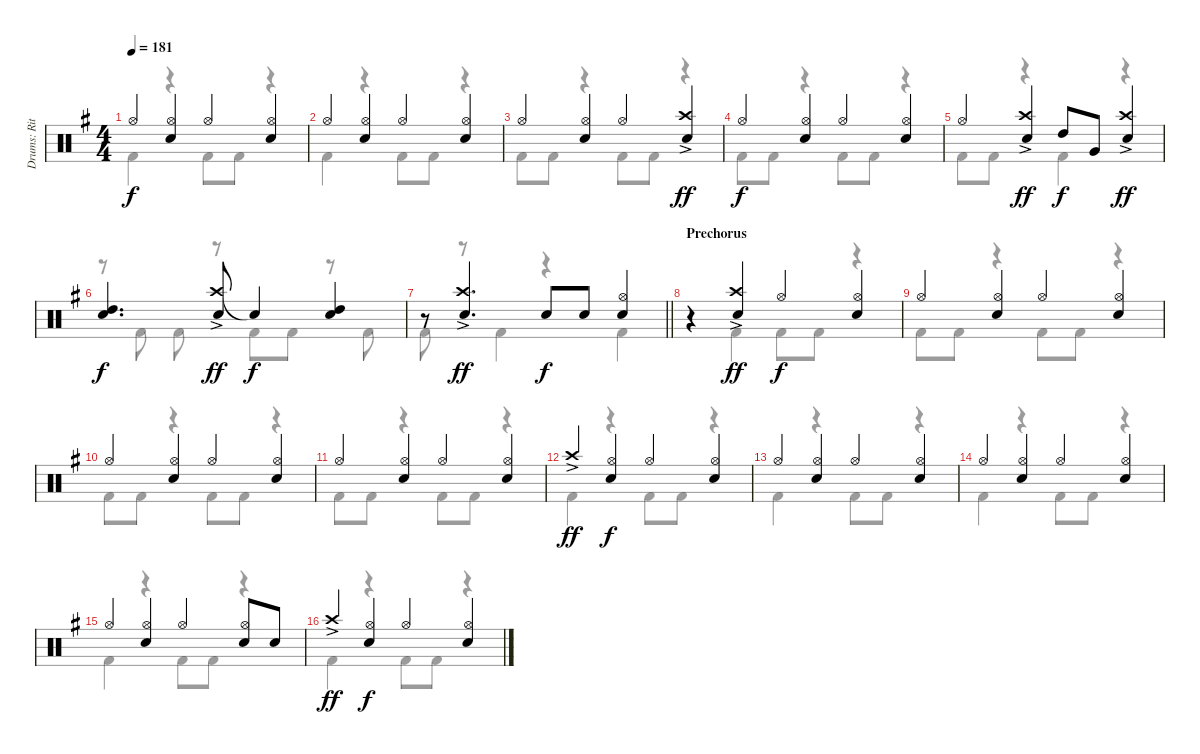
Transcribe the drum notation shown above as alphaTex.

\track ("Drums: Ritsu Tianaka" "Drums: Rit") {instrument percussion}
\staff {score}
\articulation defaults
\voice
\ts (4 4)
\tempo 181
\clef neutral
\ks g "Hi-Hat (open)".4{dy f}
("Hi-Hat (open)" "Snare (hit) 2").4 "Hi-Hat (open)".4 ("Hi-Hat (open)" "Snare (hit) 2").4 |
"Hi-Hat (open)".4 ("Hi-Hat (open)" "Snare (hit) 2").4 "Hi-Hat (open)".4 ("Hi-Hat (open)" "Snare (hit) 2").4 |
"Hi-Hat (open)".4 ("Hi-Hat (open)" "Snare (hit) 2").4 "Hi-Hat (open)".4 ("Crash high (hit)"{ac} "Snare (hit) 2").4{dy ff} |
"Hi-Hat (open)".4{dy f} ("Hi-Hat (open)" "Snare (hit) 2").4 "Hi-Hat (open)".4 ("Hi-Hat (open)" "Snare (hit) 2").4 |
"Hi-Hat (open)".4 ("Crash high (hit)"{ac} "Snare (hit) 2").4{dy ff} "High Tom (hit)".8{dy f} "Very Low Tom (hit)".8 ("Crash high (hit)"{ac} "Snare (hit) 2").4{dy ff} |
("High Tom (hit)" "Snare (hit) 2").4{d dy f} ("Crash high (hit)"{ac} "Snare (hit) 2").8{dy ff} "Snare (hit)"{t}.4{dy f} ("High Tom (hit)" "Snare (hit) 2").4 |
\barLineRight lightlight
r.8 ("Crash high (hit)"{ac} "Snare (hit) 2").4{d dy ff} "Snare (hit) 2".8{dy f} "Snare (hit) 2".8 ("Hi-Hat (open)" "Snare (hit) 2").4 |
\section ("" "Prechorus")
r.4 ("Crash high (hit)"{ac} "Snare (hit) 2").4{dy ff} "Hi-Hat (open)".4{dy f} ("Hi-Hat (open)" "Snare (hit) 2").4 |
"Hi-Hat (open)".4 ("Hi-Hat (open)" "Snare (hit) 2").4 "Hi-Hat (open)".4 ("Hi-Hat (open)" "Snare (hit) 2").4 |
"Hi-Hat (open)".4 ("Hi-Hat (open)" "Snare (hit) 2").4 "Hi-Hat (open)".4 ("Hi-Hat (open)" "Snare (hit) 2").4 |
"Hi-Hat (open)".4 ("Hi-Hat (open)" "Snare (hit) 2").4 "Hi-Hat (open)".4 ("Hi-Hat (open)" "Snare (hit) 2").4 |
"Crash high (hit)"{ac}.4{dy ff} ("Hi-Hat (open)" "Snare (hit) 2").4{dy f} "Hi-Hat (open)".4 ("Hi-Hat (open)" "Snare (hit) 2").4 |
"Hi-Hat (open)".4 ("Hi-Hat (open)" "Snare (hit) 2").4 "Hi-Hat (open)".4 ("Hi-Hat (open)" "Snare (hit) 2").4 |
"Hi-Hat (open)".4 ("Hi-Hat (open)" "Snare (hit) 2").4 "Hi-Hat (open)".4 ("Hi-Hat (open)" "Snare (hit) 2").4 |
"Hi-Hat (open)".4 ("Hi-Hat (open)" "Snare (hit) 2").4 "Hi-Hat (open)".4 ("Hi-Hat (open)" "Snare (hit) 2").8 "Snare (hit) 2".8 |
"Crash high (hit)"{ac}.4{dy ff} ("Hi-Hat (open)" "Snare (hit) 2").4{dy f} "Hi-Hat (open)".4 ("Hi-Hat (open)" "Snare (hit) 2").4
\voice
\clef neutral
\ottava regular
\simile none
\ks g "Kick (hit) 2".4{dy f}
r.4 "Kick (hit) 2".8 "Kick (hit) 2".8 r.4 |
"Kick (hit) 2".4 r.4 "Kick (hit) 2".8 "Kick (hit) 2".8 r.4 |
"Kick (hit) 2".8 "Kick (hit) 2".8 r.4 "Kick (hit) 2".8 "Kick (hit) 2".8 r.4 |
"Kick (hit) 2".8 "Kick (hit) 2".8 r.4 "Kick (hit) 2".8 "Kick (hit) 2".8 r.4 |
"Kick (hit) 2".8 "Kick (hit) 2".8 r.4 "Kick (hit) 2".4 r.4 |
r.8 "Kick (hit) 2".8 "Kick (hit) 2".8 r.8 "Kick (hit) 2".8 "Kick (hit) 2".8 r.8 "Kick (hit) 2".8 |
\barLineRight lightlight "Kick (hit) 2".8
r.8 "Kick (hit) 2".4 r.4 "Kick (hit) 2".4 |
r.4 "Kick (hit) 2".4 "Kick (hit) 2".8 "Kick (hit) 2".8 r.4 |
"Kick (hit) 2".8 "Kick (hit) 2".8 r.4 "Kick (hit) 2".8 "Kick (hit) 2".8 r.4 |
"Kick (hit) 2".8 "Kick (hit) 2".8 r.4 "Kick (hit) 2".8 "Kick (hit) 2".8 r.4 |
"Kick (hit) 2".8 "Kick (hit) 2".8 r.4 "Kick (hit) 2".8 "Kick (hit) 2".8 r.4 |
"Kick (hit) 2".4 r.4 "Kick (hit) 2".8 "Kick (hit) 2".8 r.4 |
"Kick (hit) 2".4 r.4 "Kick (hit) 2".8 "Kick (hit) 2".8 r.4 |
"Kick (hit) 2".4 r.4 "Kick (hit) 2".8 "Kick (hit) 2".8 r.4 |
"Kick (hit) 2".4 r.4 "Kick (hit) 2".8 "Kick (hit) 2".8 r.4 |
"Kick (hit) 2".4 r.4 "Kick (hit) 2".8 "Kick (hit) 2".8 r.4
